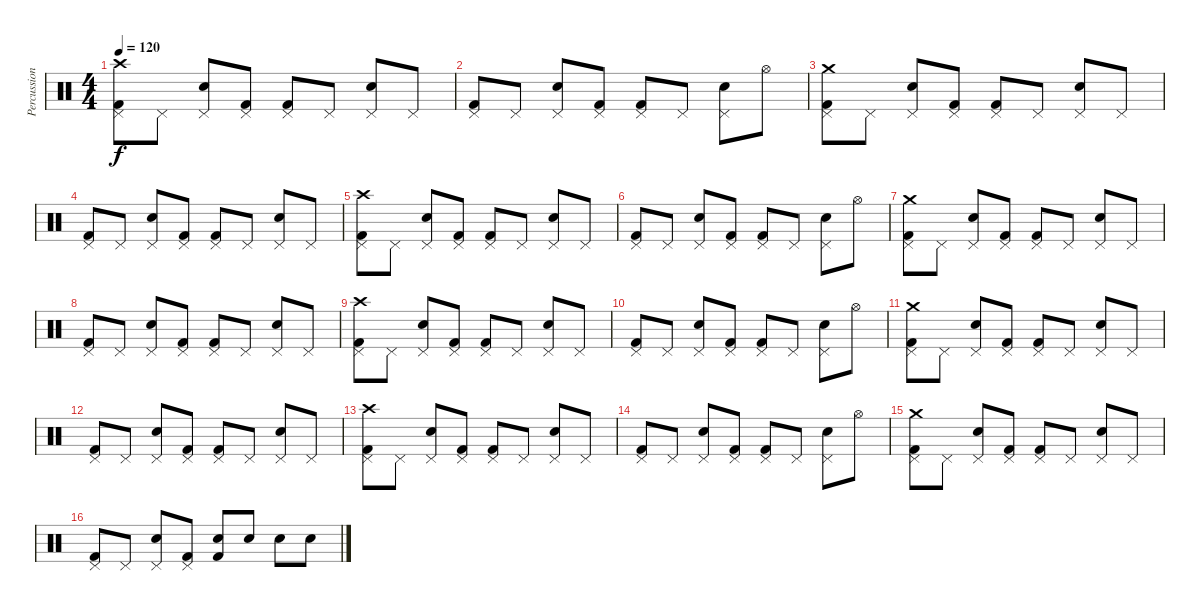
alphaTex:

\track ("Percussion" "Percussion") {instrument percussion}
\staff {score}
\articulation defaults
\ts (4 4)
\tempo 120
\clef neutral
\ks c
("Crash high (hit)" "Pedal Hi-Hat (hit)" "Kick (hit) 2").8{dy f} "Pedal Hi-Hat (hit)".8 ("Snare (hit) 2" "Pedal Hi-Hat (hit)").8 ("Pedal Hi-Hat (hit)" "Kick (hit) 2").8 ("Pedal Hi-Hat (hit)" "Kick (hit) 2").8 "Pedal Hi-Hat (hit)".8 ("Snare (hit) 2" "Pedal Hi-Hat (hit)").8 "Pedal Hi-Hat (hit)".8 |
("Pedal Hi-Hat (hit)" "Kick (hit) 2").8 "Pedal Hi-Hat (hit)".8 ("Snare (hit) 2" "Pedal Hi-Hat (hit)").8 ("Pedal Hi-Hat (hit)" "Kick (hit) 2").8 ("Pedal Hi-Hat (hit)" "Kick (hit) 2").8 "Pedal Hi-Hat (hit)".8 ("Snare (hit) 2" "Pedal Hi-Hat (hit)").8 "Hi-Hat (open)".8 |
("Crash medium (hit)" "Pedal Hi-Hat (hit)" "Kick (hit) 2").8 "Pedal Hi-Hat (hit)".8 ("Snare (hit) 2" "Pedal Hi-Hat (hit)").8 ("Pedal Hi-Hat (hit)" "Kick (hit) 2").8 ("Pedal Hi-Hat (hit)" "Kick (hit) 2").8 "Pedal Hi-Hat (hit)".8 ("Snare (hit) 2" "Pedal Hi-Hat (hit)").8 "Pedal Hi-Hat (hit)".8 |
("Pedal Hi-Hat (hit)" "Kick (hit) 2").8 "Pedal Hi-Hat (hit)".8 ("Snare (hit) 2" "Pedal Hi-Hat (hit)").8 ("Pedal Hi-Hat (hit)" "Kick (hit) 2").8 ("Pedal Hi-Hat (hit)" "Kick (hit) 2").8 "Pedal Hi-Hat (hit)".8 ("Snare (hit) 2" "Pedal Hi-Hat (hit)").8 "Pedal Hi-Hat (hit)".8 |
("Crash high (hit)" "Pedal Hi-Hat (hit)" "Kick (hit) 2").8 "Pedal Hi-Hat (hit)".8 ("Snare (hit) 2" "Pedal Hi-Hat (hit)").8 ("Pedal Hi-Hat (hit)" "Kick (hit) 2").8 ("Pedal Hi-Hat (hit)" "Kick (hit) 2").8 "Pedal Hi-Hat (hit)".8 ("Snare (hit) 2" "Pedal Hi-Hat (hit)").8 "Pedal Hi-Hat (hit)".8 |
("Pedal Hi-Hat (hit)" "Kick (hit) 2").8 "Pedal Hi-Hat (hit)".8 ("Snare (hit) 2" "Pedal Hi-Hat (hit)").8 ("Pedal Hi-Hat (hit)" "Kick (hit) 2").8 ("Pedal Hi-Hat (hit)" "Kick (hit) 2").8 "Pedal Hi-Hat (hit)".8 ("Snare (hit) 2" "Pedal Hi-Hat (hit)").8 "Hi-Hat (open)".8 |
("Crash medium (hit)" "Pedal Hi-Hat (hit)" "Kick (hit) 2").8 "Pedal Hi-Hat (hit)".8 ("Snare (hit) 2" "Pedal Hi-Hat (hit)").8 ("Pedal Hi-Hat (hit)" "Kick (hit) 2").8 ("Pedal Hi-Hat (hit)" "Kick (hit) 2").8 "Pedal Hi-Hat (hit)".8 ("Snare (hit) 2" "Pedal Hi-Hat (hit)").8 "Pedal Hi-Hat (hit)".8 |
("Pedal Hi-Hat (hit)" "Kick (hit) 2").8 "Pedal Hi-Hat (hit)".8 ("Snare (hit) 2" "Pedal Hi-Hat (hit)").8 ("Pedal Hi-Hat (hit)" "Kick (hit) 2").8 ("Pedal Hi-Hat (hit)" "Kick (hit) 2").8 "Pedal Hi-Hat (hit)".8 ("Snare (hit) 2" "Pedal Hi-Hat (hit)").8 "Pedal Hi-Hat (hit)".8 |
("Crash high (hit)" "Pedal Hi-Hat (hit)" "Kick (hit) 2").8 "Pedal Hi-Hat (hit)".8 ("Snare (hit) 2" "Pedal Hi-Hat (hit)").8 ("Pedal Hi-Hat (hit)" "Kick (hit) 2").8 ("Pedal Hi-Hat (hit)" "Kick (hit) 2").8 "Pedal Hi-Hat (hit)".8 ("Snare (hit) 2" "Pedal Hi-Hat (hit)").8 "Pedal Hi-Hat (hit)".8 |
("Pedal Hi-Hat (hit)" "Kick (hit) 2").8 "Pedal Hi-Hat (hit)".8 ("Snare (hit) 2" "Pedal Hi-Hat (hit)").8 ("Pedal Hi-Hat (hit)" "Kick (hit) 2").8 ("Pedal Hi-Hat (hit)" "Kick (hit) 2").8 "Pedal Hi-Hat (hit)".8 ("Snare (hit) 2" "Pedal Hi-Hat (hit)").8 "Hi-Hat (open)".8 |
("Crash medium (hit)" "Pedal Hi-Hat (hit)" "Kick (hit) 2").8 "Pedal Hi-Hat (hit)".8 ("Snare (hit) 2" "Pedal Hi-Hat (hit)").8 ("Pedal Hi-Hat (hit)" "Kick (hit) 2").8 ("Pedal Hi-Hat (hit)" "Kick (hit) 2").8 "Pedal Hi-Hat (hit)".8 ("Snare (hit) 2" "Pedal Hi-Hat (hit)").8 "Pedal Hi-Hat (hit)".8 |
("Pedal Hi-Hat (hit)" "Kick (hit) 2").8 "Pedal Hi-Hat (hit)".8 ("Snare (hit) 2" "Pedal Hi-Hat (hit)").8 ("Pedal Hi-Hat (hit)" "Kick (hit) 2").8 ("Pedal Hi-Hat (hit)" "Kick (hit) 2").8 "Pedal Hi-Hat (hit)".8 ("Snare (hit) 2" "Pedal Hi-Hat (hit)").8 "Pedal Hi-Hat (hit)".8 |
("Crash high (hit)" "Pedal Hi-Hat (hit)" "Kick (hit) 2").8 "Pedal Hi-Hat (hit)".8 ("Snare (hit) 2" "Pedal Hi-Hat (hit)").8 ("Pedal Hi-Hat (hit)" "Kick (hit) 2").8 ("Pedal Hi-Hat (hit)" "Kick (hit) 2").8 "Pedal Hi-Hat (hit)".8 ("Snare (hit) 2" "Pedal Hi-Hat (hit)").8 "Pedal Hi-Hat (hit)".8 |
("Pedal Hi-Hat (hit)" "Kick (hit) 2").8 "Pedal Hi-Hat (hit)".8 ("Snare (hit) 2" "Pedal Hi-Hat (hit)").8 ("Pedal Hi-Hat (hit)" "Kick (hit) 2").8 ("Pedal Hi-Hat (hit)" "Kick (hit) 2").8 "Pedal Hi-Hat (hit)".8 ("Snare (hit) 2" "Pedal Hi-Hat (hit)").8 "Hi-Hat (open)".8 |
("Crash medium (hit)" "Pedal Hi-Hat (hit)" "Kick (hit) 2").8 "Pedal Hi-Hat (hit)".8 ("Snare (hit) 2" "Pedal Hi-Hat (hit)").8 ("Pedal Hi-Hat (hit)" "Kick (hit) 2").8 ("Pedal Hi-Hat (hit)" "Kick (hit) 2").8 "Pedal Hi-Hat (hit)".8 ("Snare (hit) 2" "Pedal Hi-Hat (hit)").8 "Pedal Hi-Hat (hit)".8 |
("Pedal Hi-Hat (hit)" "Kick (hit) 2").8 "Pedal Hi-Hat (hit)".8 ("Snare (hit) 2" "Pedal Hi-Hat (hit)").8 ("Pedal Hi-Hat (hit)" "Kick (hit) 2").8 ("Snare (hit) 2" "Kick (hit) 2").8 "Snare (hit) 2".8 "Snare (hit) 2".8 "Snare (hit) 2".8
